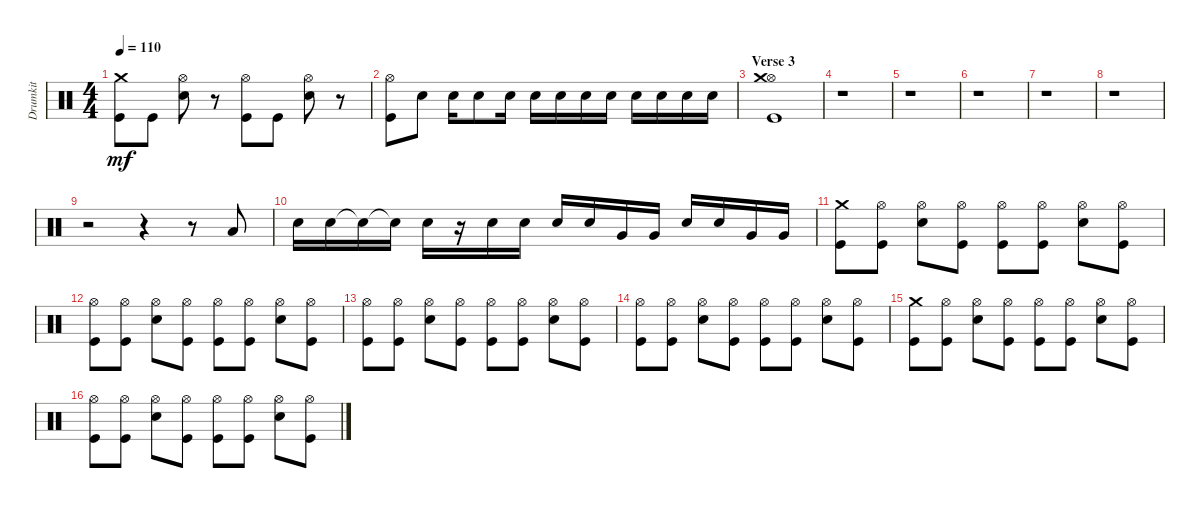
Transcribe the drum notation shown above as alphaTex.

\track ("Drumkit" "Drumkit") {instrument percussion}
\staff {score}
\articulation defaults
\ts (4 4)
\tempo 110
\clef neutral
\ks c
("Crash medium (hit)" "Kick (hit)").8{dy mf} "Kick (hit)".8 ("Snare (hit) 2" "Hi-Hat (open)").8 r.8 ("Hi-Hat (open)" "Kick (hit)").8 "Kick (hit)".8 ("Hi-Hat (open)" "Snare (hit) 2").8 r.8 |
("Kick (hit)" "Hi-Hat (open)").8 "Snare (hit) 2".8 "Snare (hit) 2".16 "Snare (hit) 2".8 "Snare (hit) 2".16 "Snare (hit) 2".16 "Snare (hit) 2".16 "Snare (hit) 2".16 "Snare (hit) 2".16 "Snare (hit) 2".16 "Snare (hit) 2".16 "Snare (hit) 2".16 "Snare (hit) 2".16 |
\section ("" "Verse 3")
("Kick (hit)" "Hi-Hat (open)" "Crash medium (hit)").1 |
r.1 |
r.1 |
r.1 |
r.1 |
r.1 |
r.2 r.4 r.8 "Low Floor Tom (hit)".8 |
"Snare (hit) 2".16 "Snare (hit) 2".16 "Snare (hit) 2"{t}.16 "Snare (hit) 2"{t}.16 "Snare (hit) 2".16 r.16 "Snare (hit) 2".16 "Snare (hit) 2".16 "Snare (hit) 2".16 "Snare (hit) 2".16 "Very Low Tom (hit)".16 "Very Low Tom (hit)".16 "Snare (hit) 2".16 "Snare (hit) 2".16 "Very Low Tom (hit)".16 "Very Low Tom (hit)".16 |
("Kick (hit)" "Crash medium (hit)").8 ("Kick (hit)" "Hi-Hat (open)").8 ("Hi-Hat (open)" "Snare (hit) 2").8 ("Kick (hit)" "Hi-Hat (open)").8 ("Kick (hit)" "Hi-Hat (open)").8 ("Kick (hit)" "Hi-Hat (open)").8 ("Hi-Hat (open)" "Snare (hit) 2").8 ("Kick (hit)" "Hi-Hat (open)").8 |
("Kick (hit)" "Hi-Hat (open)").8 ("Kick (hit)" "Hi-Hat (open)").8 ("Hi-Hat (open)" "Snare (hit) 2").8 ("Kick (hit)" "Hi-Hat (open)").8 ("Kick (hit)" "Hi-Hat (open)").8 ("Kick (hit)" "Hi-Hat (open)").8 ("Hi-Hat (open)" "Snare (hit) 2").8 ("Kick (hit)" "Hi-Hat (open)").8 |
("Kick (hit)" "Hi-Hat (open)").8 ("Kick (hit)" "Hi-Hat (open)").8 ("Hi-Hat (open)" "Snare (hit) 2").8 ("Kick (hit)" "Hi-Hat (open)").8 ("Kick (hit)" "Hi-Hat (open)").8 ("Kick (hit)" "Hi-Hat (open)").8 ("Hi-Hat (open)" "Snare (hit) 2").8 ("Kick (hit)" "Hi-Hat (open)").8 |
("Kick (hit)" "Hi-Hat (open)").8 ("Kick (hit)" "Hi-Hat (open)").8 ("Hi-Hat (open)" "Snare (hit) 2").8 ("Kick (hit)" "Hi-Hat (open)").8 ("Kick (hit)" "Hi-Hat (open)").8 ("Kick (hit)" "Hi-Hat (open)").8 ("Hi-Hat (open)" "Snare (hit) 2").8 ("Kick (hit)" "Hi-Hat (open)").8 |
("Kick (hit)" "Crash medium (hit)").8 ("Kick (hit)" "Hi-Hat (open)").8 ("Hi-Hat (open)" "Snare (hit) 2").8 ("Kick (hit)" "Hi-Hat (open)").8 ("Kick (hit)" "Hi-Hat (open)").8 ("Kick (hit)" "Hi-Hat (open)").8 ("Hi-Hat (open)" "Snare (hit) 2").8 ("Kick (hit)" "Hi-Hat (open)").8 |
("Kick (hit)" "Hi-Hat (open)").8 ("Kick (hit)" "Hi-Hat (open)").8 ("Hi-Hat (open)" "Snare (hit) 2").8 ("Kick (hit)" "Hi-Hat (open)").8 ("Kick (hit)" "Hi-Hat (open)").8 ("Kick (hit)" "Hi-Hat (open)").8 ("Hi-Hat (open)" "Snare (hit) 2").8 ("Kick (hit)" "Hi-Hat (open)").8
